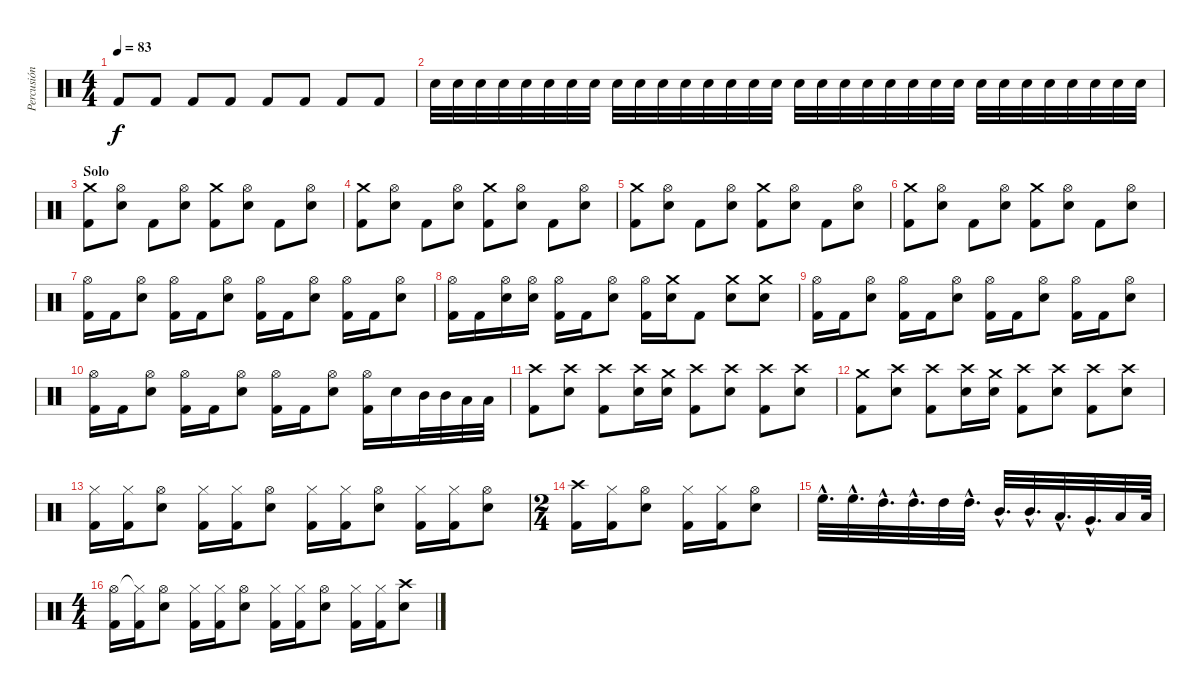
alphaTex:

\track ("Percusión" "Percusión") {instrument percussion}
\staff {score}
\articulation defaults
\ts (4 4)
\tempo 83
\clef neutral
\ks c "Kick (hit) 2".8{dy f} "Kick (hit) 2".8 "Kick (hit) 2".8 "Kick (hit) 2".8 "Kick (hit) 2".8 "Kick (hit) 2".8 "Kick (hit) 2".8 "Kick (hit) 2".8
|
"Electric Snare (hit)".32 "Electric Snare (hit)".32 "Electric Snare (hit)".32 "Electric Snare (hit)".32 "Electric Snare (hit)".32 "Electric Snare (hit)".32 "Electric Snare (hit)".32 "Electric Snare (hit)".32 "Electric Snare (hit)".32 "Electric Snare (hit)".32 "Electric Snare (hit)".32 "Electric Snare (hit)".32 "Electric Snare (hit)".32 "Electric Snare (hit)".32 "Electric Snare (hit)".32 "Electric Snare (hit)".32 "Electric Snare (hit)".32 "Electric Snare (hit)".32 "Electric Snare (hit)".32 "Electric Snare (hit)".32 "Electric Snare (hit)".32 "Electric Snare (hit)".32 "Electric Snare (hit)".32 "Electric Snare (hit)".32 "Electric Snare (hit)".32 "Electric Snare (hit)".32 "Electric Snare (hit)".32 "Electric Snare (hit)".32 "Electric Snare (hit)".32 "Electric Snare (hit)".32 "Electric Snare (hit)".32 "Electric Snare (hit)".32 |
\section ("" "Solo")
("Kick (hit) 2" "Crash medium (hit)").8 ("Snare (hit) 2" "Hi-Hat (open)").8 "Kick (hit) 2".8 ("Snare (hit) 2" "Hi-Hat (open)").8 ("Kick (hit) 2" "Crash medium (hit)").8 ("Snare (hit) 2" "Hi-Hat (open)").8 "Kick (hit) 2".8 ("Snare (hit) 2" "Hi-Hat (open)").8 |
("Kick (hit) 2" "Crash medium (hit)").8 ("Snare (hit) 2" "Hi-Hat (open)").8 "Kick (hit) 2".8 ("Snare (hit) 2" "Hi-Hat (open)").8 ("Kick (hit) 2" "Crash medium (hit)").8 ("Snare (hit) 2" "Hi-Hat (open)").8 "Kick (hit) 2".8 ("Snare (hit) 2" "Hi-Hat (open)").8 |
("Kick (hit) 2" "Crash medium (hit)").8 ("Snare (hit) 2" "Hi-Hat (open)").8 "Kick (hit) 2".8 ("Snare (hit) 2" "Hi-Hat (open)").8 ("Kick (hit) 2" "Crash medium (hit)").8 ("Snare (hit) 2" "Hi-Hat (open)").8 "Kick (hit) 2".8 ("Snare (hit) 2" "Hi-Hat (open)").8 |
("Kick (hit) 2" "Crash medium (hit)").8 ("Snare (hit) 2" "Hi-Hat (open)").8 "Kick (hit) 2".8 ("Snare (hit) 2" "Hi-Hat (open)").8 ("Kick (hit) 2" "Crash medium (hit)").8 ("Snare (hit) 2" "Hi-Hat (open)").8 "Kick (hit) 2".8 ("Snare (hit) 2" "Hi-Hat (open)").8 |
("Kick (hit) 2" "Hi-Hat (open)").16 "Kick (hit) 2".16 ("Snare (hit) 2" "Hi-Hat (open)").8 ("Kick (hit) 2" "Hi-Hat (open)").16 "Kick (hit) 2".16 ("Snare (hit) 2" "Hi-Hat (open)").8 ("Kick (hit) 2" "Hi-Hat (open)").16 "Kick (hit) 2".16 ("Snare (hit) 2" "Hi-Hat (open)").8 ("Kick (hit) 2" "Hi-Hat (open)").16 "Kick (hit) 2".16 ("Snare (hit) 2" "Hi-Hat (open)").8 |
("Kick (hit) 2" "Hi-Hat (open)").16 "Kick (hit) 2".16 ("Snare (hit) 2" "Hi-Hat (open)").16 ("Snare (hit) 2" "Hi-Hat (open)").16 ("Kick (hit) 2" "Hi-Hat (open)").16 "Kick (hit) 2".16 ("Snare (hit) 2" "Hi-Hat (open)").8 ("Kick (hit) 2" "Hi-Hat (open)").16 ("Snare (hit) 2" "Crash medium (hit)").16 "Kick (hit) 2".8 ("Snare (hit) 2" "Crash medium (hit)").8 ("Snare (hit) 2" "Crash medium (hit)").8 |
("Kick (hit) 2" "Hi-Hat (open)").16 "Kick (hit) 2".16 ("Snare (hit) 2" "Hi-Hat (open)").8 ("Kick (hit) 2" "Hi-Hat (open)").16 "Kick (hit) 2".16 ("Snare (hit) 2" "Hi-Hat (open)").8 ("Kick (hit) 2" "Hi-Hat (open)").16 "Kick (hit) 2".16 ("Snare (hit) 2" "Hi-Hat (open)").8 ("Kick (hit) 2" "Hi-Hat (open)").16 "Kick (hit) 2".16 ("Snare (hit) 2" "Hi-Hat (open)").8 |
("Kick (hit) 2" "Hi-Hat (open)").16 "Kick (hit) 2".16 ("Snare (hit) 2" "Hi-Hat (open)").8 ("Kick (hit) 2" "Hi-Hat (open)").16 "Kick (hit) 2".16 ("Snare (hit) 2" "Hi-Hat (open)").8 ("Kick (hit) 2" "Hi-Hat (open)").16 "Kick (hit) 2".16 ("Snare (hit) 2" "Hi-Hat (open)").8 ("Kick (hit) 2" "Hi-Hat (open)").16 "Snare (hit) 2".16 "Mid Tom (hit)".32 "Mid Tom (hit)".32 "Low Tom (hit)".32 "Low Floor Tom (hit)".32 |
("Kick (hit) 2" "Crash high (hit)").8 ("Snare (hit) 2" "Crash high (hit)").8 ("Kick (hit) 2" "Crash high (hit)").8 ("Snare (hit) 2" "Crash high (hit)").16 ("Snare (hit) 2" "Crash medium (hit)").16 ("Kick (hit) 2" "Crash high (hit)").8 ("Snare (hit) 2" "Crash high (hit)").8 ("Kick (hit) 2" "Crash high (hit)").8 ("Snare (hit) 2" "Crash high (hit)").8 |
("Kick (hit) 2" "Crash medium (hit)").8 ("Snare (hit) 2" "Crash high (hit)").8 ("Kick (hit) 2" "Crash high (hit)").8 ("Snare (hit) 2" "Crash high (hit)").16 ("Snare (hit) 2" "Crash medium (hit)").16 ("Kick (hit) 2" "Crash high (hit)").8 ("Snare (hit) 2" "Crash high (hit)").8 ("Kick (hit) 2" "Crash high (hit)").8 ("Snare (hit) 2" "Crash high (hit)").8 |
("Kick (hit) 2" "Hi-Hat (closed)").16 ("Kick (hit) 2" "Hi-Hat (closed)").16 ("Snare (hit) 2" "Hi-Hat (open)").8 ("Kick (hit) 2" "Hi-Hat (closed)").16 ("Kick (hit) 2" "Hi-Hat (closed)").16 ("Snare (hit) 2" "Hi-Hat (open)").8 ("Kick (hit) 2" "Hi-Hat (closed)").16 ("Kick (hit) 2" "Hi-Hat (closed)").16 ("Snare (hit) 2" "Hi-Hat (open)").8 ("Kick (hit) 2" "Hi-Hat (closed)").16 ("Kick (hit) 2" "Hi-Hat (closed)").16 ("Snare (hit) 2" "Hi-Hat (open)").8 |
\ts (2 4)
("Kick (hit) 2" "Crash high (hit)").16 ("Kick (hit) 2" "Hi-Hat (closed)").16 ("Snare (hit) 2" "Hi-Hat (open)").8 ("Kick (hit) 2" "Hi-Hat (closed)").16 ("Kick (hit) 2" "Hi-Hat (closed)").16 ("Snare (hit) 2" "Hi-Hat (open)").8 |
"High Floor Tom (hit)"{hac}.32{d} "High Floor Tom (hit)"{hac}.32{d} "High Tom (hit)"{hac}.32{d} "High Tom (hit)"{hac}.32{d} "High Tom (hit)".32 "High Tom (hit)"{hac}.32{d} "Mid Tom (hit)"{hac}.32{d} "Mid Tom (hit)"{hac}.32{d} "Low Tom (hit)"{hac}.32{d} "Very Low Tom (hit)"{hac}.32{d} "Low Floor Tom (hit)".32 "Low Floor Tom (hit)".64 |
\ts (4 4)
("Kick (hit) 2" "Hi-Hat (open)").16 ("Kick (hit) 2" "Hi-Hat (closed)"{t}).16 ("Snare (hit) 2" "Hi-Hat (open)").8 ("Kick (hit) 2" "Hi-Hat (closed)").16 ("Kick (hit) 2" "Hi-Hat (closed)").16 ("Snare (hit) 2" "Hi-Hat (open)").8 ("Kick (hit) 2" "Hi-Hat (closed)").16 ("Kick (hit) 2" "Hi-Hat (closed)").16 ("Snare (hit) 2" "Hi-Hat (open)").8 ("Kick (hit) 2" "Hi-Hat (closed)").16 ("Kick (hit) 2" "Hi-Hat (closed)").16 ("Snare (hit) 2" "Crash high (hit)").8
